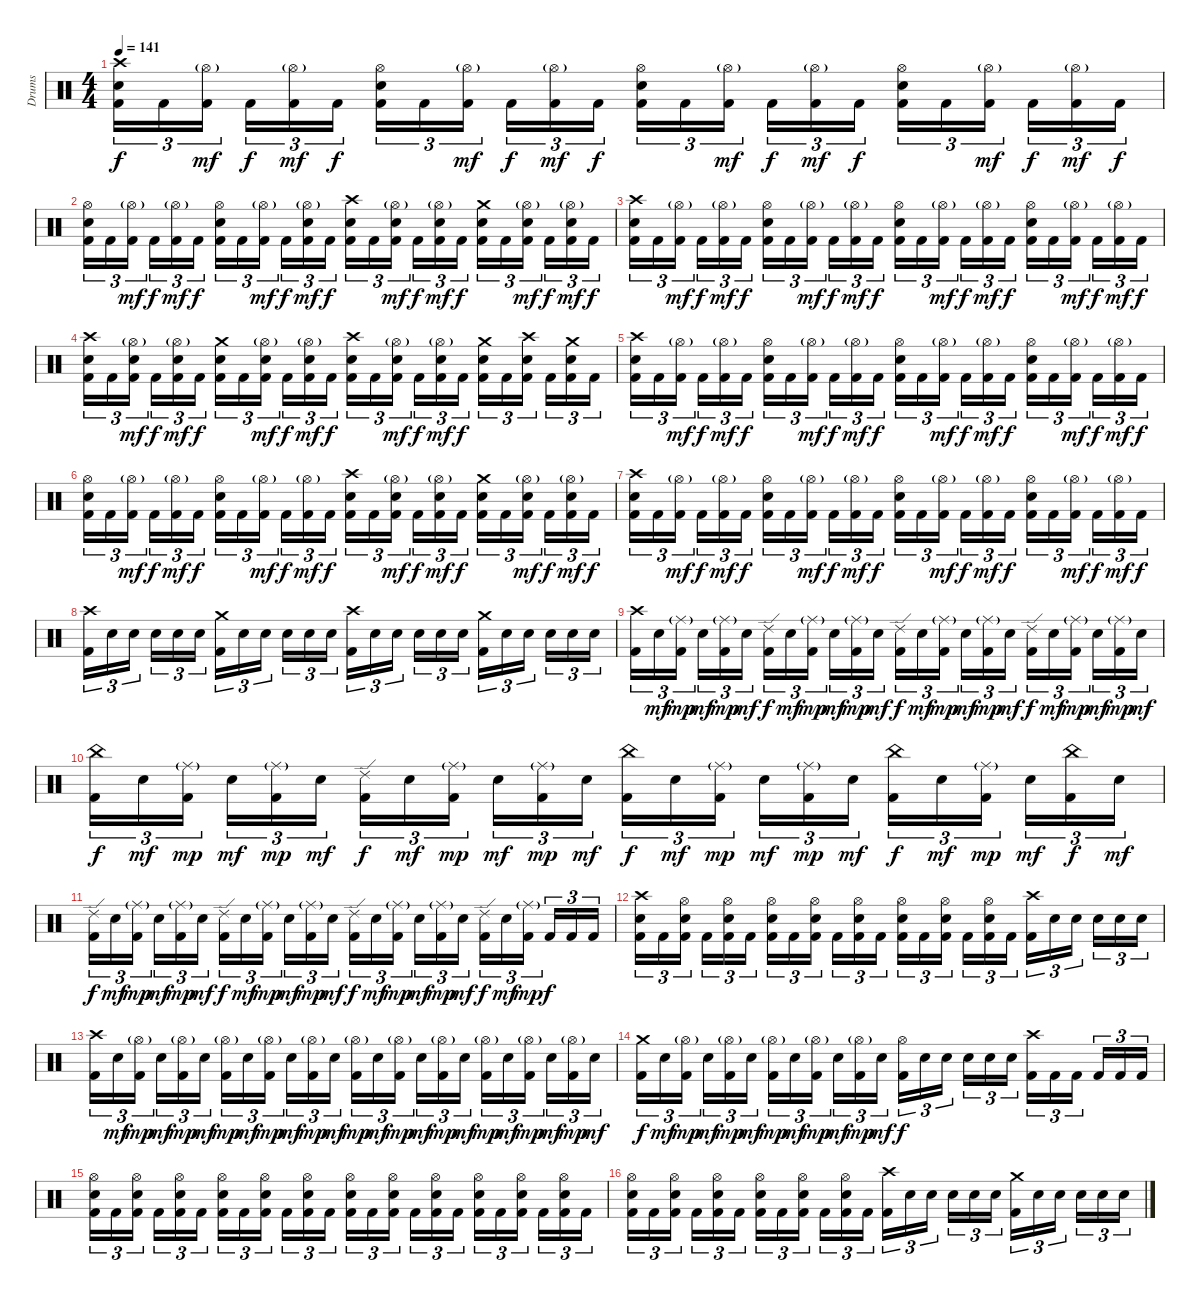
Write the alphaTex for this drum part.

\track ("Drums" "Drums") {instrument percussion}
\staff {score}
\articulation defaults
\ts (4 4)
\tempo 141
\clef neutral
\ks c
("Crash high (hit)" "Electric Snare (hit)" "Kick (hit) 2").16{tu (3 2) dy f} "Kick (hit) 2".16{tu (3 2)} ("Hi-Hat (open)"{g} "Kick (hit) 2").16{tu (3 2) dy mf} "Kick (hit) 2".16{tu (3 2) dy f} ("Hi-Hat (open)"{g} "Kick (hit) 2").16{tu (3 2) dy mf} "Kick (hit) 2".16{tu (3 2) dy f} ("Hi-Hat (open)" "Electric Snare (hit)" "Kick (hit) 2").16{tu (3 2)} "Kick (hit) 2".16{tu (3 2)} ("Hi-Hat (open)"{g} "Kick (hit) 2").16{tu (3 2) dy mf} "Kick (hit) 2".16{tu (3 2) dy f} ("Hi-Hat (open)"{g} "Kick (hit) 2").16{tu (3 2) dy mf} "Kick (hit) 2".16{tu (3 2) dy f} ("Hi-Hat (open)" "Electric Snare (hit)" "Kick (hit) 2").16{tu (3 2)} "Kick (hit) 2".16{tu (3 2)} ("Hi-Hat (open)"{g} "Kick (hit) 2").16{tu (3 2) dy mf} "Kick (hit) 2".16{tu (3 2) dy f} ("Hi-Hat (open)"{g} "Kick (hit) 2").16{tu (3 2) dy mf} "Kick (hit) 2".16{tu (3 2) dy f} ("Hi-Hat (open)" "Electric Snare (hit)" "Kick (hit) 2").16{tu (3 2)} "Kick (hit) 2".16{tu (3 2)} ("Hi-Hat (open)"{g} "Kick (hit) 2").16{tu (3 2) dy mf} "Kick (hit) 2".16{tu (3 2) dy f} ("Hi-Hat (open)"{g} "Kick (hit) 2").16{tu (3 2) dy mf} "Kick (hit) 2".16{tu (3 2) dy f} |
("Hi-Hat (open)" "Electric Snare (hit)" "Kick (hit) 2").16{tu (3 2)} "Kick (hit) 2".16{tu (3 2)} ("Hi-Hat (open)"{g} "Kick (hit) 2").16{tu (3 2) dy mf} "Kick (hit) 2".16{tu (3 2) dy f} ("Hi-Hat (open)"{g} "Kick (hit) 2").16{tu (3 2) dy mf} "Kick (hit) 2".16{tu (3 2) dy f} ("Hi-Hat (open)" "Electric Snare (hit)" "Kick (hit) 2").16{tu (3 2)} "Kick (hit) 2".16{tu (3 2)} ("Hi-Hat (open)"{g} "Kick (hit) 2").16{tu (3 2) dy mf} "Kick (hit) 2".16{tu (3 2) dy f} ("Hi-Hat (open)"{g} "Electric Snare (hit)" "Kick (hit) 2").16{tu (3 2) dy mf} "Kick (hit) 2".16{tu (3 2) dy f} ("Crash high (hit)" "Electric Snare (hit)" "Kick (hit) 2").16{tu (3 2)} "Kick (hit) 2".16{tu (3 2)} ("Hi-Hat (open)"{g} "Electric Snare (hit)" "Kick (hit) 2").16{tu (3 2) dy mf} "Kick (hit) 2".16{tu (3 2) dy f} ("Hi-Hat (open)"{g} "Electric Snare (hit)" "Kick (hit) 2").16{tu (3 2) dy mf} "Kick (hit) 2".16{tu (3 2) dy f} ("Crash medium (hit)" "Electric Snare (hit)" "Kick (hit) 2").16{tu (3 2)} "Kick (hit) 2".16{tu (3 2)} ("Hi-Hat (open)"{g} "Electric Snare (hit)" "Kick (hit) 2").16{tu (3 2) dy mf} "Kick (hit) 2".16{tu (3 2) dy f} ("Hi-Hat (open)"{g} "Electric Snare (hit)" "Kick (hit) 2").16{tu (3 2) dy mf} "Kick (hit) 2".16{tu (3 2) dy f} |
("Crash high (hit)" "Electric Snare (hit)" "Kick (hit) 2").16{tu (3 2)} "Kick (hit) 2".16{tu (3 2)} ("Hi-Hat (open)"{g} "Kick (hit) 2").16{tu (3 2) dy mf} "Kick (hit) 2".16{tu (3 2) dy f} ("Hi-Hat (open)"{g} "Kick (hit) 2").16{tu (3 2) dy mf} "Kick (hit) 2".16{tu (3 2) dy f} ("Hi-Hat (open)" "Electric Snare (hit)" "Kick (hit) 2").16{tu (3 2)} "Kick (hit) 2".16{tu (3 2)} ("Hi-Hat (open)"{g} "Kick (hit) 2").16{tu (3 2) dy mf} "Kick (hit) 2".16{tu (3 2) dy f} ("Hi-Hat (open)"{g} "Kick (hit) 2").16{tu (3 2) dy mf} "Kick (hit) 2".16{tu (3 2) dy f} ("Hi-Hat (open)" "Electric Snare (hit)" "Kick (hit) 2").16{tu (3 2)} "Kick (hit) 2".16{tu (3 2)} ("Hi-Hat (open)"{g} "Kick (hit) 2").16{tu (3 2) dy mf} "Kick (hit) 2".16{tu (3 2) dy f} ("Hi-Hat (open)"{g} "Kick (hit) 2").16{tu (3 2) dy mf} "Kick (hit) 2".16{tu (3 2) dy f} ("Hi-Hat (open)" "Electric Snare (hit)" "Kick (hit) 2").16{tu (3 2)} "Kick (hit) 2".16{tu (3 2)} ("Hi-Hat (open)"{g} "Kick (hit) 2").16{tu (3 2) dy mf} "Kick (hit) 2".16{tu (3 2) dy f} ("Hi-Hat (open)"{g} "Kick (hit) 2").16{tu (3 2) dy mf} "Kick (hit) 2".16{tu (3 2) dy f} |
("Crash high (hit)" "Electric Snare (hit)" "Kick (hit) 2").16{tu (3 2)} "Kick (hit) 2".16{tu (3 2)} ("Hi-Hat (open)"{g} "Electric Snare (hit)" "Kick (hit) 2").16{tu (3 2) dy mf} "Kick (hit) 2".16{tu (3 2) dy f} ("Hi-Hat (open)"{g} "Electric Snare (hit)" "Kick (hit) 2").16{tu (3 2) dy mf} "Kick (hit) 2".16{tu (3 2) dy f} ("Crash medium (hit)" "Electric Snare (hit)" "Kick (hit) 2").16{tu (3 2)} "Kick (hit) 2".16{tu (3 2)} ("Hi-Hat (open)"{g} "Electric Snare (hit)" "Kick (hit) 2").16{tu (3 2) dy mf} "Kick (hit) 2".16{tu (3 2) dy f} ("Hi-Hat (open)"{g} "Electric Snare (hit)" "Kick (hit) 2").16{tu (3 2) dy mf} "Kick (hit) 2".16{tu (3 2) dy f} ("Crash high (hit)" "Electric Snare (hit)" "Kick (hit) 2").16{tu (3 2)} "Kick (hit) 2".16{tu (3 2)} ("Hi-Hat (open)"{g} "Electric Snare (hit)" "Kick (hit) 2").16{tu (3 2) dy mf} "Kick (hit) 2".16{tu (3 2) dy f} ("Hi-Hat (open)"{g} "Electric Snare (hit)" "Kick (hit) 2").16{tu (3 2) dy mf} "Kick (hit) 2".16{tu (3 2) dy f} ("Crash medium (hit)" "Electric Snare (hit)" "Kick (hit) 2").16{tu (3 2)} "Kick (hit) 2".16{tu (3 2)} ("Crash high (hit)" "Electric Snare (hit)" "Kick (hit) 2").16{tu (3 2)} "Kick (hit) 2".16{tu (3 2)} ("Crash medium (hit)" "Electric Snare (hit)" "Kick (hit) 2").16{tu (3 2)} "Kick (hit) 2".16{tu (3 2)} |
("Crash high (hit)" "Electric Snare (hit)" "Kick (hit) 2").16{tu (3 2)} "Kick (hit) 2".16{tu (3 2)} ("Hi-Hat (open)"{g} "Kick (hit) 2").16{tu (3 2) dy mf} "Kick (hit) 2".16{tu (3 2) dy f} ("Hi-Hat (open)"{g} "Kick (hit) 2").16{tu (3 2) dy mf} "Kick (hit) 2".16{tu (3 2) dy f} ("Hi-Hat (open)" "Electric Snare (hit)" "Kick (hit) 2").16{tu (3 2)} "Kick (hit) 2".16{tu (3 2)} ("Hi-Hat (open)"{g} "Kick (hit) 2").16{tu (3 2) dy mf} "Kick (hit) 2".16{tu (3 2) dy f} ("Hi-Hat (open)"{g} "Kick (hit) 2").16{tu (3 2) dy mf} "Kick (hit) 2".16{tu (3 2) dy f} ("Hi-Hat (open)" "Electric Snare (hit)" "Kick (hit) 2").16{tu (3 2)} "Kick (hit) 2".16{tu (3 2)} ("Hi-Hat (open)"{g} "Kick (hit) 2").16{tu (3 2) dy mf} "Kick (hit) 2".16{tu (3 2) dy f} ("Hi-Hat (open)"{g} "Kick (hit) 2").16{tu (3 2) dy mf} "Kick (hit) 2".16{tu (3 2) dy f} ("Hi-Hat (open)" "Electric Snare (hit)" "Kick (hit) 2").16{tu (3 2)} "Kick (hit) 2".16{tu (3 2)} ("Hi-Hat (open)"{g} "Kick (hit) 2").16{tu (3 2) dy mf} "Kick (hit) 2".16{tu (3 2) dy f} ("Hi-Hat (open)"{g} "Kick (hit) 2").16{tu (3 2) dy mf} "Kick (hit) 2".16{tu (3 2) dy f} |
("Hi-Hat (open)" "Electric Snare (hit)" "Kick (hit) 2").16{tu (3 2)} "Kick (hit) 2".16{tu (3 2)} ("Hi-Hat (open)"{g} "Kick (hit) 2").16{tu (3 2) dy mf} "Kick (hit) 2".16{tu (3 2) dy f} ("Hi-Hat (open)"{g} "Kick (hit) 2").16{tu (3 2) dy mf} "Kick (hit) 2".16{tu (3 2) dy f} ("Hi-Hat (open)" "Electric Snare (hit)" "Kick (hit) 2").16{tu (3 2)} "Kick (hit) 2".16{tu (3 2)} ("Hi-Hat (open)"{g} "Kick (hit) 2").16{tu (3 2) dy mf} "Kick (hit) 2".16{tu (3 2) dy f} ("Hi-Hat (open)"{g} "Kick (hit) 2").16{tu (3 2) dy mf} "Kick (hit) 2".16{tu (3 2) dy f} ("Crash high (hit)" "Electric Snare (hit)" "Kick (hit) 2").16{tu (3 2)} "Kick (hit) 2".16{tu (3 2)} ("Hi-Hat (open)"{g} "Electric Snare (hit)" "Kick (hit) 2").16{tu (3 2) dy mf} "Kick (hit) 2".16{tu (3 2) dy f} ("Hi-Hat (open)"{g} "Electric Snare (hit)" "Kick (hit) 2").16{tu (3 2) dy mf} "Kick (hit) 2".16{tu (3 2) dy f} ("Crash medium (hit)" "Electric Snare (hit)" "Kick (hit) 2").16{tu (3 2)} "Kick (hit) 2".16{tu (3 2)} ("Hi-Hat (open)"{g} "Electric Snare (hit)" "Kick (hit) 2").16{tu (3 2) dy mf} "Kick (hit) 2".16{tu (3 2) dy f} ("Hi-Hat (open)"{g} "Electric Snare (hit)" "Kick (hit) 2").16{tu (3 2) dy mf} "Kick (hit) 2".16{tu (3 2) dy f} |
("Crash high (hit)" "Electric Snare (hit)" "Kick (hit) 2").16{tu (3 2)} "Kick (hit) 2".16{tu (3 2)} ("Hi-Hat (open)"{g} "Kick (hit) 2").16{tu (3 2) dy mf} "Kick (hit) 2".16{tu (3 2) dy f} ("Hi-Hat (open)"{g} "Kick (hit) 2").16{tu (3 2) dy mf} "Kick (hit) 2".16{tu (3 2) dy f} ("Hi-Hat (open)" "Electric Snare (hit)" "Kick (hit) 2").16{tu (3 2)} "Kick (hit) 2".16{tu (3 2)} ("Hi-Hat (open)"{g} "Kick (hit) 2").16{tu (3 2) dy mf} "Kick (hit) 2".16{tu (3 2) dy f} ("Hi-Hat (open)"{g} "Kick (hit) 2").16{tu (3 2) dy mf} "Kick (hit) 2".16{tu (3 2) dy f} ("Hi-Hat (open)" "Electric Snare (hit)" "Kick (hit) 2").16{tu (3 2)} "Kick (hit) 2".16{tu (3 2)} ("Hi-Hat (open)"{g} "Kick (hit) 2").16{tu (3 2) dy mf} "Kick (hit) 2".16{tu (3 2) dy f} ("Hi-Hat (open)"{g} "Kick (hit) 2").16{tu (3 2) dy mf} "Kick (hit) 2".16{tu (3 2) dy f} ("Hi-Hat (open)" "Electric Snare (hit)" "Kick (hit) 2").16{tu (3 2)} "Kick (hit) 2".16{tu (3 2)} ("Hi-Hat (open)"{g} "Kick (hit) 2").16{tu (3 2) dy mf} "Kick (hit) 2".16{tu (3 2) dy f} ("Hi-Hat (open)"{g} "Kick (hit) 2").16{tu (3 2) dy mf} "Kick (hit) 2".16{tu (3 2) dy f} |
("Crash high (hit)" "Kick (hit) 2").16{tu (3 2)} "Electric Snare (hit)".16{tu (3 2)} "Electric Snare (hit)".16{tu (3 2)} "Electric Snare (hit)".16{tu (3 2)} "Electric Snare (hit)".16{tu (3 2)} "Electric Snare (hit)".16{tu (3 2)} ("Crash medium (hit)" "Kick (hit) 2").16{tu (3 2)} "Electric Snare (hit)".16{tu (3 2)} "Electric Snare (hit)".16{tu (3 2)} "Electric Snare (hit)".16{tu (3 2)} "Electric Snare (hit)".16{tu (3 2)} "Electric Snare (hit)".16{tu (3 2)} ("Crash high (hit)" "Kick (hit) 2").16{tu (3 2)} "Electric Snare (hit)".16{tu (3 2)} "Electric Snare (hit)".16{tu (3 2)} "Electric Snare (hit)".16{tu (3 2)} "Electric Snare (hit)".16{tu (3 2)} "Electric Snare (hit)".16{tu (3 2)} ("Crash medium (hit)" "Kick (hit) 2").16{tu (3 2)} "Electric Snare (hit)".16{tu (3 2)} "Electric Snare (hit)".16{tu (3 2)} "Electric Snare (hit)".16{tu (3 2)} "Electric Snare (hit)".16{tu (3 2)} "Electric Snare (hit)".16{tu (3 2)} |
("Crash high (hit)" "Kick (hit) 2").16{tu (3 2)} "Electric Snare (hit)".16{tu (3 2) dy mf} ("Ride (middle)"{g} "Kick (hit) 2").16{tu (3 2) dy mp} "Electric Snare (hit)".16{tu (3 2) dy mf} ("Ride (middle)"{g} "Kick (hit) 2").16{tu (3 2) dy mp} "Electric Snare (hit)".16{tu (3 2) dy mf} ("Ride (edge) 2" "Kick (hit) 2").16{tu (3 2) dy f} "Electric Snare (hit)".16{tu (3 2) dy mf} ("Ride (middle)"{g} "Kick (hit) 2").16{tu (3 2) dy mp} "Electric Snare (hit)".16{tu (3 2) dy mf} ("Ride (middle)"{g} "Kick (hit) 2").16{tu (3 2) dy mp} "Electric Snare (hit)".16{tu (3 2) dy mf} ("Ride (edge) 2" "Kick (hit) 2").16{tu (3 2) dy f} "Electric Snare (hit)".16{tu (3 2) dy mf} ("Ride (middle)"{g} "Kick (hit) 2").16{tu (3 2) dy mp} "Electric Snare (hit)".16{tu (3 2) dy mf} ("Ride (middle)"{g} "Kick (hit) 2").16{tu (3 2) dy mp} "Electric Snare (hit)".16{tu (3 2) dy mf} ("Ride (edge) 2" "Kick (hit) 2").16{tu (3 2) dy f} "Electric Snare (hit)".16{tu (3 2) dy mf} ("Ride (middle)"{g} "Kick (hit) 2").16{tu (3 2) dy mp} "Electric Snare (hit)".16{tu (3 2) dy mf} ("Ride (middle)"{g} "Kick (hit) 2").16{tu (3 2) dy mp} "Electric Snare (hit)".16{tu (3 2) dy mf} |
("China (hit)" "Kick (hit) 2").16{tu (3 2) dy f} "Electric Snare (hit)".16{tu (3 2) dy mf} ("Ride (middle)"{g} "Kick (hit) 2").16{tu (3 2) dy mp} "Electric Snare (hit)".16{tu (3 2) dy mf} ("Ride (middle)"{g} "Kick (hit) 2").16{tu (3 2) dy mp} "Electric Snare (hit)".16{tu (3 2) dy mf} ("Ride (edge) 2" "Kick (hit) 2").16{tu (3 2) dy f} "Electric Snare (hit)".16{tu (3 2) dy mf} ("Ride (middle)"{g} "Kick (hit) 2").16{tu (3 2) dy mp} "Electric Snare (hit)".16{tu (3 2) dy mf} ("Ride (middle)"{g} "Kick (hit) 2").16{tu (3 2) dy mp} "Electric Snare (hit)".16{tu (3 2) dy mf} ("China (hit)" "Kick (hit) 2").16{tu (3 2) dy f} "Electric Snare (hit)".16{tu (3 2) dy mf} ("Ride (middle)"{g} "Kick (hit) 2").16{tu (3 2) dy mp} "Electric Snare (hit)".16{tu (3 2) dy mf} ("Ride (middle)"{g} "Kick (hit) 2").16{tu (3 2) dy mp} "Electric Snare (hit)".16{tu (3 2) dy mf} ("China (hit)" "Kick (hit) 2").16{tu (3 2) dy f} "Electric Snare (hit)".16{tu (3 2) dy mf} ("Ride (middle)"{g} "Kick (hit) 2").16{tu (3 2) dy mp} "Electric Snare (hit)".16{tu (3 2) dy mf} ("China (hit)" "Kick (hit) 2").16{tu (3 2) dy f} "Electric Snare (hit)".16{tu (3 2) dy mf} |
("Ride (edge) 2" "Kick (hit) 2").16{tu (3 2) dy f} "Electric Snare (hit)".16{tu (3 2) dy mf} ("Ride (middle)"{g} "Kick (hit) 2").16{tu (3 2) dy mp} "Electric Snare (hit)".16{tu (3 2) dy mf} ("Ride (middle)"{g} "Kick (hit) 2").16{tu (3 2) dy mp} "Electric Snare (hit)".16{tu (3 2) dy mf} ("Ride (edge) 2" "Kick (hit) 2").16{tu (3 2) dy f} "Electric Snare (hit)".16{tu (3 2) dy mf} ("Ride (middle)"{g} "Kick (hit) 2").16{tu (3 2) dy mp} "Electric Snare (hit)".16{tu (3 2) dy mf} ("Ride (middle)"{g} "Kick (hit) 2").16{tu (3 2) dy mp} "Electric Snare (hit)".16{tu (3 2) dy mf} ("Ride (edge) 2" "Kick (hit) 2").16{tu (3 2) dy f} "Electric Snare (hit)".16{tu (3 2) dy mf} ("Ride (middle)"{g} "Kick (hit) 2").16{tu (3 2) dy mp} "Electric Snare (hit)".16{tu (3 2) dy mf} ("Ride (middle)"{g} "Kick (hit) 2").16{tu (3 2) dy mp} "Electric Snare (hit)".16{tu (3 2) dy mf} ("Ride (edge) 2" "Kick (hit) 2").16{tu (3 2) dy f} "Electric Snare (hit)".16{tu (3 2) dy mf} ("Ride (middle)"{g} "Kick (hit) 2").16{tu (3 2) dy mp} "Kick (hit) 2".16{tu (3 2) dy f} "Kick (hit) 2".16{tu (3 2)} "Kick (hit) 2".16{tu (3 2)} |
("Crash high (hit)" "Electric Snare (hit)" "Kick (hit) 2").16{tu (3 2)} "Kick (hit) 2".16{tu (3 2)} ("Hi-Hat (open)" "Electric Snare (hit)" "Kick (hit) 2").16{tu (3 2)} "Kick (hit) 2".16{tu (3 2)} ("Hi-Hat (open)" "Electric Snare (hit)" "Kick (hit) 2").16{tu (3 2)} "Kick (hit) 2".16{tu (3 2)} ("Hi-Hat (open)" "Electric Snare (hit)" "Kick (hit) 2").16{tu (3 2)} "Kick (hit) 2".16{tu (3 2)} ("Hi-Hat (open)" "Electric Snare (hit)" "Kick (hit) 2").16{tu (3 2)} "Kick (hit) 2".16{tu (3 2)} ("Hi-Hat (open)" "Electric Snare (hit)" "Kick (hit) 2").16{tu (3 2)} "Kick (hit) 2".16{tu (3 2)} ("Hi-Hat (open)" "Electric Snare (hit)" "Kick (hit) 2").16{tu (3 2)} "Kick (hit) 2".16{tu (3 2)} ("Hi-Hat (open)" "Electric Snare (hit)" "Kick (hit) 2").16{tu (3 2)} "Kick (hit) 2".16{tu (3 2)} ("Hi-Hat (open)" "Electric Snare (hit)" "Kick (hit) 2").16{tu (3 2)} "Kick (hit) 2".16{tu (3 2)} ("Crash high (hit)" "Kick (hit) 2").16{tu (3 2)} "Electric Snare (hit)".16{tu (3 2)} "Electric Snare (hit)".16{tu (3 2)} "Electric Snare (hit)".16{tu (3 2)} "Electric Snare (hit)".16{tu (3 2)} "Electric Snare (hit)".16{tu (3 2)} |
("Crash high (hit)" "Kick (hit) 2").16{tu (3 2)} "Electric Snare (hit)".16{tu (3 2) dy mf} ("Hi-Hat (open)"{g} "Kick (hit) 2").16{tu (3 2) dy mp} "Electric Snare (hit)".16{tu (3 2) dy mf} ("Hi-Hat (open)"{g} "Kick (hit) 2").16{tu (3 2) dy mp} "Electric Snare (hit)".16{tu (3 2) dy mf} ("Hi-Hat (open)"{g} "Kick (hit) 2").16{tu (3 2) dy mp} "Electric Snare (hit)".16{tu (3 2) dy mf} ("Hi-Hat (open)"{g} "Kick (hit) 2").16{tu (3 2) dy mp} "Electric Snare (hit)".16{tu (3 2) dy mf} ("Hi-Hat (open)"{g} "Kick (hit) 2").16{tu (3 2) dy mp} "Electric Snare (hit)".16{tu (3 2) dy mf} ("Hi-Hat (open)"{g} "Kick (hit) 2").16{tu (3 2) dy mp} "Electric Snare (hit)".16{tu (3 2) dy mf} ("Hi-Hat (open)"{g} "Kick (hit) 2").16{tu (3 2) dy mp} "Electric Snare (hit)".16{tu (3 2) dy mf} ("Hi-Hat (open)"{g} "Kick (hit) 2").16{tu (3 2) dy mp} "Electric Snare (hit)".16{tu (3 2) dy mf} ("Hi-Hat (open)"{g} "Kick (hit) 2").16{tu (3 2) dy mp} "Electric Snare (hit)".16{tu (3 2) dy mf} ("Hi-Hat (open)"{g} "Kick (hit) 2").16{tu (3 2) dy mp} "Electric Snare (hit)".16{tu (3 2) dy mf} ("Hi-Hat (open)"{g} "Kick (hit) 2").16{tu (3 2) dy mp} "Electric Snare (hit)".16{tu (3 2) dy mf} |
("Crash medium (hit)" "Kick (hit) 2").16{tu (3 2) dy f} "Electric Snare (hit)".16{tu (3 2) dy mf} ("Hi-Hat (open)"{g} "Kick (hit) 2").16{tu (3 2) dy mp} "Electric Snare (hit)".16{tu (3 2) dy mf} ("Hi-Hat (open)"{g} "Kick (hit) 2").16{tu (3 2) dy mp} "Electric Snare (hit)".16{tu (3 2) dy mf} ("Hi-Hat (open)"{g} "Kick (hit) 2").16{tu (3 2) dy mp} "Electric Snare (hit)".16{tu (3 2) dy mf} ("Hi-Hat (open)"{g} "Kick (hit) 2").16{tu (3 2) dy mp} "Electric Snare (hit)".16{tu (3 2) dy mf} ("Hi-Hat (open)"{g} "Kick (hit) 2").16{tu (3 2) dy mp} "Electric Snare (hit)".16{tu (3 2) dy mf} ("Hi-Hat (open)" "Kick (hit) 2").16{tu (3 2) dy f} "Electric Snare (hit)".16{tu (3 2)} "Electric Snare (hit)".16{tu (3 2)} "Electric Snare (hit)".16{tu (3 2)} "Electric Snare (hit)".16{tu (3 2)} "Electric Snare (hit)".16{tu (3 2)} ("Crash high (hit)" "Kick (hit) 2").16{tu (3 2)} "Kick (hit) 2".16{tu (3 2)} "Kick (hit) 2".16{tu (3 2)} "Kick (hit) 2".16{tu (3 2)} "Kick (hit) 2".16{tu (3 2)} "Kick (hit) 2".16{tu (3 2)} |
("Hi-Hat (open)" "Electric Snare (hit)" "Kick (hit) 2").16{tu (3 2)} "Kick (hit) 2".16{tu (3 2)} ("Hi-Hat (open)" "Electric Snare (hit)" "Kick (hit) 2").16{tu (3 2)} "Kick (hit) 2".16{tu (3 2)} ("Hi-Hat (open)" "Electric Snare (hit)" "Kick (hit) 2").16{tu (3 2)} "Kick (hit) 2".16{tu (3 2)} ("Hi-Hat (open)" "Electric Snare (hit)" "Kick (hit) 2").16{tu (3 2)} "Kick (hit) 2".16{tu (3 2)} ("Hi-Hat (open)" "Electric Snare (hit)" "Kick (hit) 2").16{tu (3 2)} "Kick (hit) 2".16{tu (3 2)} ("Hi-Hat (open)" "Electric Snare (hit)" "Kick (hit) 2").16{tu (3 2)} "Kick (hit) 2".16{tu (3 2)} ("Hi-Hat (open)" "Electric Snare (hit)" "Kick (hit) 2").16{tu (3 2)} "Kick (hit) 2".16{tu (3 2)} ("Hi-Hat (open)" "Electric Snare (hit)" "Kick (hit) 2").16{tu (3 2)} "Kick (hit) 2".16{tu (3 2)} ("Hi-Hat (open)" "Electric Snare (hit)" "Kick (hit) 2").16{tu (3 2)} "Kick (hit) 2".16{tu (3 2)} ("Hi-Hat (open)" "Electric Snare (hit)" "Kick (hit) 2").16{tu (3 2)} "Kick (hit) 2".16{tu (3 2)} ("Hi-Hat (open)" "Electric Snare (hit)" "Kick (hit) 2").16{tu (3 2)} "Kick (hit) 2".16{tu (3 2)} ("Hi-Hat (open)" "Electric Snare (hit)" "Kick (hit) 2").16{tu (3 2)} "Kick (hit) 2".16{tu (3 2)} |
("Hi-Hat (open)" "Electric Snare (hit)" "Kick (hit) 2").16{tu (3 2)} "Kick (hit) 2".16{tu (3 2)} ("Hi-Hat (open)" "Electric Snare (hit)" "Kick (hit) 2").16{tu (3 2)} "Kick (hit) 2".16{tu (3 2)} ("Hi-Hat (open)" "Electric Snare (hit)" "Kick (hit) 2").16{tu (3 2)} "Kick (hit) 2".16{tu (3 2)} ("Hi-Hat (open)" "Electric Snare (hit)" "Kick (hit) 2").16{tu (3 2)} "Kick (hit) 2".16{tu (3 2)} ("Hi-Hat (open)" "Electric Snare (hit)" "Kick (hit) 2").16{tu (3 2)} "Kick (hit) 2".16{tu (3 2)} ("Hi-Hat (open)" "Electric Snare (hit)" "Kick (hit) 2").16{tu (3 2)} "Kick (hit) 2".16{tu (3 2)} ("Crash high (hit)" "Kick (hit) 2").16{tu (3 2)} "Electric Snare (hit)".16{tu (3 2)} "Electric Snare (hit)".16{tu (3 2)} "Electric Snare (hit)".16{tu (3 2)} "Electric Snare (hit)".16{tu (3 2)} "Electric Snare (hit)".16{tu (3 2)} ("Crash medium (hit)" "Kick (hit) 2").16{tu (3 2)} "Electric Snare (hit)".16{tu (3 2)} "Electric Snare (hit)".16{tu (3 2)} "Electric Snare (hit)".16{tu (3 2)} "Electric Snare (hit)".16{tu (3 2)} "Electric Snare (hit)".16{tu (3 2)}
